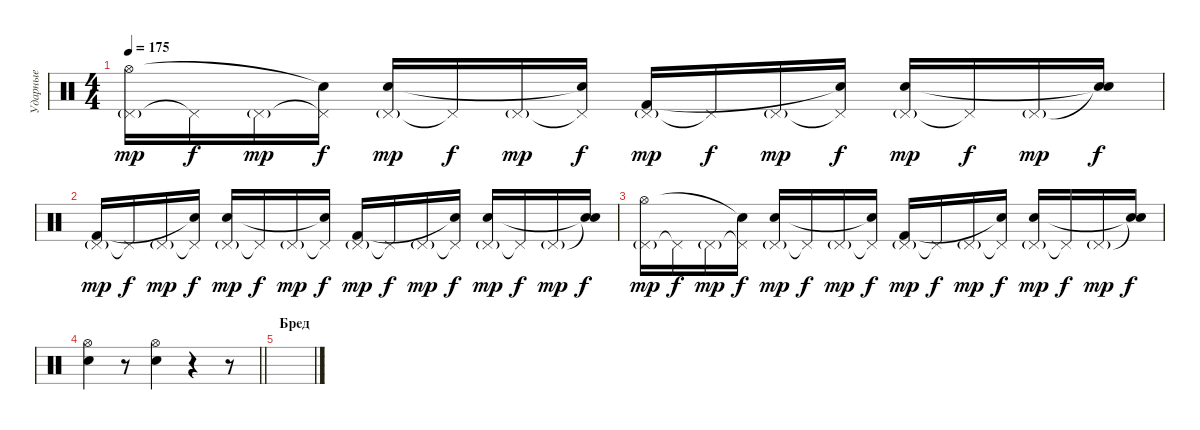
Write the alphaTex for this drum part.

\track ("Ударные" "Ударные") {instrument percussion}
\staff {score}
\articulation defaults
\ts (4 4)
\tempo 175
\clef neutral
\ks c
("Pedal Hi-Hat (hit)"{g} "Hi-Hat (open)").16{dy mp} "Pedal Hi-Hat (hit)"{t}.16{dy f} "Pedal Hi-Hat (hit)"{g}.16{dy mp} ("Pedal Hi-Hat (hit)"{t} "Snare (hit)"{t}).16{dy f} ("Pedal Hi-Hat (hit)"{g} "Electric Snare (hit)").16{dy mp} "Pedal Hi-Hat (hit)"{t}.16{dy f} "Pedal Hi-Hat (hit)"{g}.16{dy mp} ("Pedal Hi-Hat (hit)"{t} "Snare (hit)"{t}).16{dy f} ("Pedal Hi-Hat (hit)"{g} "Kick (hit) 2").16{dy mp} "Pedal Hi-Hat (hit)"{t}.16{dy f} "Pedal Hi-Hat (hit)"{g}.16{dy mp} ("Pedal Hi-Hat (hit)"{t} "Snare (hit)"{t}).16{dy f} ("Pedal Hi-Hat (hit)"{g} "Electric Snare (hit)").16{dy mp} "Pedal Hi-Hat (hit)"{t}.16{dy f} "Pedal Hi-Hat (hit)"{g}.16{dy mp} ("Snare (hit)"{t} "Snare (hit)"{t}).16{dy f} |
("Pedal Hi-Hat (hit)"{g} "Kick (hit) 2").16{dy mp} "Pedal Hi-Hat (hit)"{t}.16{dy f} "Pedal Hi-Hat (hit)"{g}.16{dy mp} ("Pedal Hi-Hat (hit)"{t} "Snare (hit)"{t}).16{dy f} ("Pedal Hi-Hat (hit)"{g} "Electric Snare (hit)").16{dy mp} "Pedal Hi-Hat (hit)"{t}.16{dy f} "Pedal Hi-Hat (hit)"{g}.16{dy mp} ("Pedal Hi-Hat (hit)"{t} "Snare (hit)"{t}).16{dy f} ("Pedal Hi-Hat (hit)"{g} "Kick (hit) 2").16{dy mp} "Pedal Hi-Hat (hit)"{t}.16{dy f} "Pedal Hi-Hat (hit)"{g}.16{dy mp} ("Pedal Hi-Hat (hit)"{t} "Snare (hit)"{t}).16{dy f} ("Pedal Hi-Hat (hit)"{g} "Electric Snare (hit)").16{dy mp} "Pedal Hi-Hat (hit)"{t}.16{dy f} "Pedal Hi-Hat (hit)"{g}.16{dy mp} ("Snare (hit)"{t} "Snare (hit)"{t}).16{dy f} |
("Pedal Hi-Hat (hit)"{g} "Hi-Hat (open)").16{dy mp} "Pedal Hi-Hat (hit)"{t}.16{dy f} "Pedal Hi-Hat (hit)"{g}.16{dy mp} ("Pedal Hi-Hat (hit)"{t} "Snare (hit)"{t}).16{dy f} ("Pedal Hi-Hat (hit)"{g} "Electric Snare (hit)").16{dy mp} "Pedal Hi-Hat (hit)"{t}.16{dy f} "Pedal Hi-Hat (hit)"{g}.16{dy mp} ("Pedal Hi-Hat (hit)"{t} "Snare (hit)"{t}).16{dy f} ("Pedal Hi-Hat (hit)"{g} "Kick (hit) 2").16{dy mp} "Pedal Hi-Hat (hit)"{t}.16{dy f} "Pedal Hi-Hat (hit)"{g}.16{dy mp} ("Pedal Hi-Hat (hit)"{t} "Snare (hit)"{t}).16{dy f} ("Pedal Hi-Hat (hit)"{g} "Electric Snare (hit)").16{dy mp} "Pedal Hi-Hat (hit)"{t}.16{dy f} "Pedal Hi-Hat (hit)"{g}.16{dy mp} ("Snare (hit)"{t} "Snare (hit)"{t}).16{dy f} |
\barLineRight lightlight
("Hi-Hat (open)" "Electric Snare (hit)").4 r.8 ("Hi-Hat (open)" "Electric Snare (hit)").4 r.4 r.8 |
\section ("" "Бред")
